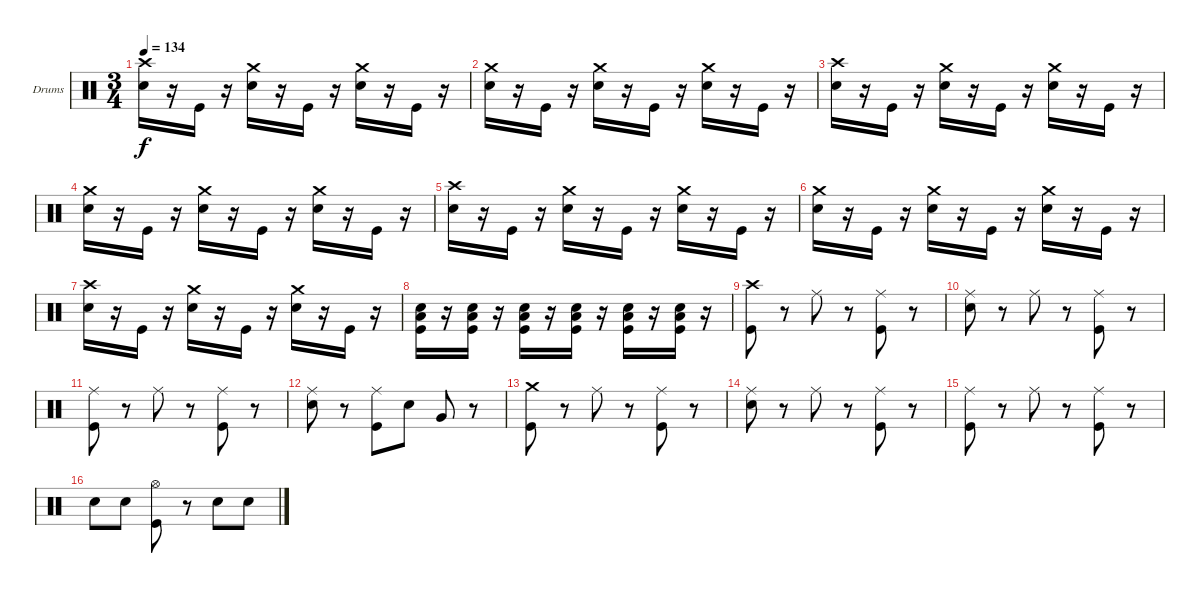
\bracketExtendMode groupsimilarinstruments
\firstSystemTrackNameOrientation horizontal
\otherSystemsTrackNameOrientation horizontal
\track ("Drumkit" "Drums") {instrument percussion}
\staff {score}
\articulation defaults
\ts (3 4)
\tempo 134
\clef neutral
\ks c
("Snare (hit) 2" "Crash high (hit)").16{dy f} r.16 "Kick (hit)".16 r.16 ("Crash medium (hit)" "Snare (hit) 2").16 r.16 "Kick (hit)".16 r.16 ("Crash medium (hit)" "Snare (hit) 2").16 r.16 "Kick (hit)".16 r.16 |
("Snare (hit) 2" "Crash medium (hit)").16 r.16 "Kick (hit)".16 r.16 ("Snare (hit) 2" "Crash medium (hit)").16 r.16 "Kick (hit)".16 r.16 ("Snare (hit) 2" "Crash medium (hit)").16 r.16 "Kick (hit)".16 r.16 |
("Crash high (hit)" "Snare (hit) 2").16 r.16 "Kick (hit)".16 r.16 ("Snare (hit) 2" "Crash medium (hit)").16 r.16 "Kick (hit)".16 r.16 ("Snare (hit) 2" "Crash medium (hit)").16 r.16 "Kick (hit)".16 r.16 |
("Snare (hit) 2" "Crash medium (hit)").16 r.16 "Kick (hit)".16 r.16 ("Crash medium (hit)" "Snare (hit) 2").16 r.16 "Kick (hit)".16 r.16 ("Crash medium (hit)" "Snare (hit) 2").16 r.16 "Kick (hit)".16 r.16 |
("Crash high (hit)" "Snare (hit) 2").16 r.16 "Kick (hit)".16 r.16 ("Snare (hit) 2" "Crash medium (hit)").16 r.16 "Kick (hit)".16 r.16 ("Snare (hit) 2" "Crash medium (hit)").16 r.16 "Kick (hit)".16 r.16 |
("Crash medium (hit)" "Snare (hit) 2").16 r.16 "Kick (hit)".16 r.16 ("Crash medium (hit)" "Snare (hit) 2").16 r.16 "Kick (hit)".16 r.16 ("Crash medium (hit)" "Snare (hit) 2").16 r.16 "Kick (hit)".16 r.16 |
("Snare (hit) 2" "Crash high (hit)").16 r.16 "Kick (hit)".16 r.16 ("Crash medium (hit)" "Snare (hit) 2").16 r.16 "Kick (hit)".16 r.16 ("Crash medium (hit)" "Snare (hit) 2").16 r.16 "Kick (hit)".16 r.16 |
("Low Tom (hit)" "Kick (hit)" "Snare (hit) 2").16 r.16 ("Low Tom (hit)" "Snare (hit) 2" "Kick (hit)").16 r.16 ("Low Tom (hit)" "Kick (hit)" "Snare (hit) 2").16 r.16 ("Low Tom (hit)" "Kick (hit)" "Snare (hit) 2").16 r.16 ("Low Tom (hit)" "Kick (hit)" "Snare (hit) 2").16 r.16 ("Low Tom (hit)" "Kick (hit)" "Snare (hit) 2").16 r.16 |
("Kick (hit)" "Crash high (hit)").8 r.8 "Ride (middle)".8 r.8 ("Kick (hit)" "Ride (middle)").8 r.8 |
("Ride (middle)" "Snare (hit) 2").8 r.8 "Ride (middle)".8 r.8 ("Kick (hit)" "Ride (middle)").8 r.8 |
("Kick (hit)" "Ride (middle)").8 r.8 "Ride (middle)".8 r.8 ("Kick (hit)" "Ride (middle)").8 r.8 |
("Snare (hit) 2" "Ride (middle)").8 r.8 ("Ride (middle)" "Kick (hit)").8 "Snare (hit) 2".8 "Very Low Tom (hit)".8 r.8 |
("Crash medium (hit)" "Kick (hit)").8 r.8 "Ride (middle)".8 r.8 ("Kick (hit)" "Ride (middle)").8 r.8 |
("Ride (middle)" "Snare (hit) 2").8 r.8 "Ride (middle)".8 r.8 ("Kick (hit)" "Ride (middle)").8 r.8 |
("Kick (hit)" "Ride (middle)").8 r.8 "Ride (middle)".8 r.8 ("Kick (hit)" "Ride (middle)").8 r.8 |
"Snare (hit) 2".8 "Snare (hit) 2".8 ("Hi-Hat (open)" "Kick (hit)").8 r.8 "Snare (hit) 2".8 "Snare (hit) 2".8
